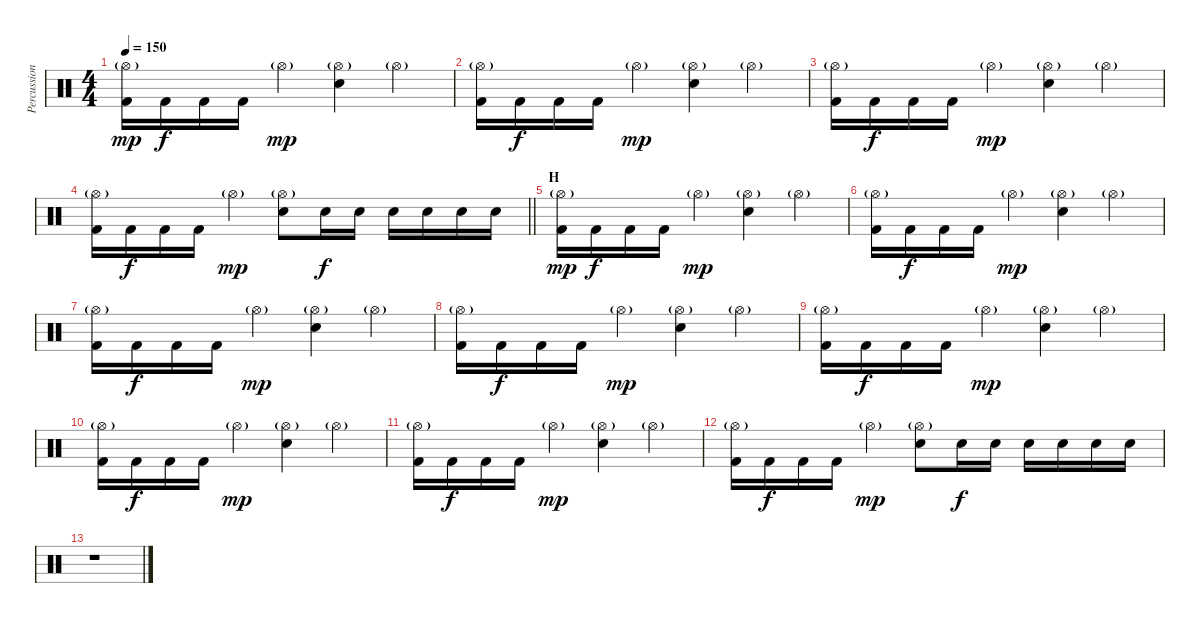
\track ("Percussion" "Percussion") {instrument percussion}
\staff {score}
\articulation defaults
\ts (4 4)
\tempo 150
\clef neutral
\ks c
("Hi-Hat (open)"{g} "Kick (hit) 2").16{dy mp} "Kick (hit) 2".16{dy f} "Kick (hit) 2".16 "Kick (hit) 2".16 "Hi-Hat (open)"{g}.4{dy mp} ("Hi-Hat (open)"{g} "Electric Snare (hit)").4 "Hi-Hat (open)"{g}.4 |
("Hi-Hat (open)"{g} "Kick (hit) 2").16 "Kick (hit) 2".16{dy f} "Kick (hit) 2".16 "Kick (hit) 2".16 "Hi-Hat (open)"{g}.4{dy mp} ("Hi-Hat (open)"{g} "Electric Snare (hit)").4 "Hi-Hat (open)"{g}.4 |
("Hi-Hat (open)"{g} "Kick (hit) 2").16 "Kick (hit) 2".16{dy f} "Kick (hit) 2".16 "Kick (hit) 2".16 "Hi-Hat (open)"{g}.4{dy mp} ("Hi-Hat (open)"{g} "Electric Snare (hit)").4 "Hi-Hat (open)"{g}.4 |
\barLineRight lightlight
("Hi-Hat (open)"{g} "Kick (hit) 2").16 "Kick (hit) 2".16{dy f} "Kick (hit) 2".16 "Kick (hit) 2".16 "Hi-Hat (open)"{g}.4{dy mp} ("Hi-Hat (open)"{g} "Electric Snare (hit)").8 "Electric Snare (hit)".16{dy f} "Electric Snare (hit)".16 "Electric Snare (hit)".16 "Electric Snare (hit)".16 "Electric Snare (hit)".16 "Electric Snare (hit)".16 |
\section ("" "H")
("Hi-Hat (open)"{g} "Kick (hit) 2").16{dy mp} "Kick (hit) 2".16{dy f} "Kick (hit) 2".16 "Kick (hit) 2".16 "Hi-Hat (open)"{g}.4{dy mp} ("Hi-Hat (open)"{g} "Electric Snare (hit)").4 "Hi-Hat (open)"{g}.4 |
("Hi-Hat (open)"{g} "Kick (hit) 2").16 "Kick (hit) 2".16{dy f} "Kick (hit) 2".16 "Kick (hit) 2".16 "Hi-Hat (open)"{g}.4{dy mp} ("Hi-Hat (open)"{g} "Electric Snare (hit)").4 "Hi-Hat (open)"{g}.4 |
("Hi-Hat (open)"{g} "Kick (hit) 2").16 "Kick (hit) 2".16{dy f} "Kick (hit) 2".16 "Kick (hit) 2".16 "Hi-Hat (open)"{g}.4{dy mp} ("Hi-Hat (open)"{g} "Electric Snare (hit)").4 "Hi-Hat (open)"{g}.4 |
("Hi-Hat (open)"{g} "Kick (hit) 2").16 "Kick (hit) 2".16{dy f} "Kick (hit) 2".16 "Kick (hit) 2".16 "Hi-Hat (open)"{g}.4{dy mp} ("Hi-Hat (open)"{g} "Electric Snare (hit)").4 "Hi-Hat (open)"{g}.4 |
("Hi-Hat (open)"{g} "Kick (hit) 2").16 "Kick (hit) 2".16{dy f} "Kick (hit) 2".16 "Kick (hit) 2".16 "Hi-Hat (open)"{g}.4{dy mp} ("Hi-Hat (open)"{g} "Electric Snare (hit)").4 "Hi-Hat (open)"{g}.4 |
("Hi-Hat (open)"{g} "Kick (hit) 2").16 "Kick (hit) 2".16{dy f} "Kick (hit) 2".16 "Kick (hit) 2".16 "Hi-Hat (open)"{g}.4{dy mp} ("Hi-Hat (open)"{g} "Electric Snare (hit)").4 "Hi-Hat (open)"{g}.4 |
("Hi-Hat (open)"{g} "Kick (hit) 2").16 "Kick (hit) 2".16{dy f} "Kick (hit) 2".16 "Kick (hit) 2".16 "Hi-Hat (open)"{g}.4{dy mp} ("Hi-Hat (open)"{g} "Electric Snare (hit)").4 "Hi-Hat (open)"{g}.4 |
("Hi-Hat (open)"{g} "Kick (hit) 2").16 "Kick (hit) 2".16{dy f} "Kick (hit) 2".16 "Kick (hit) 2".16 "Hi-Hat (open)"{g}.4{dy mp} ("Hi-Hat (open)"{g} "Electric Snare (hit)").8 "Electric Snare (hit)".16{dy f} "Electric Snare (hit)".16 "Electric Snare (hit)".16 "Electric Snare (hit)".16 "Electric Snare (hit)".16 "Electric Snare (hit)".16 |
r.1
